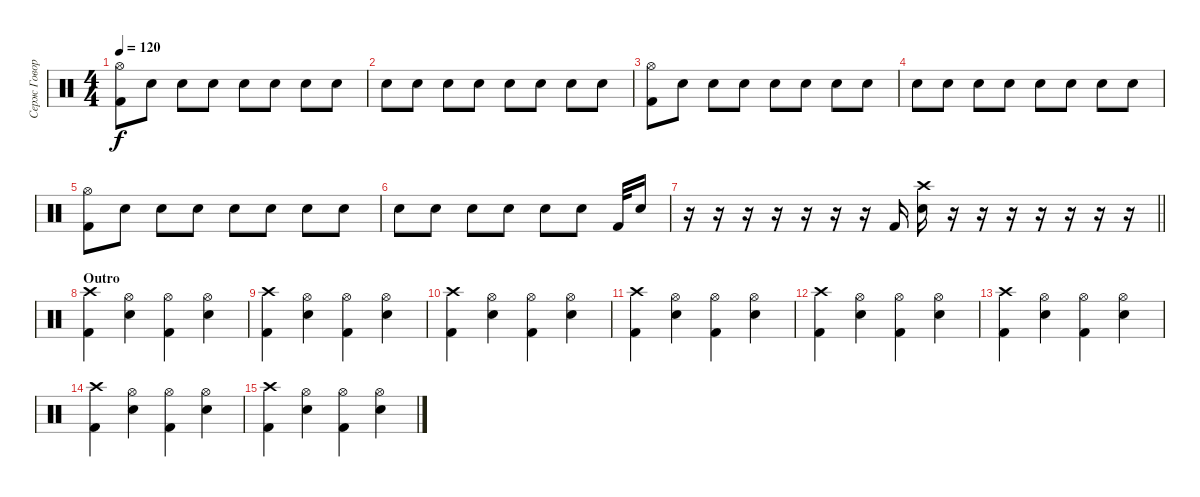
\track ("Серж Говорун" "Серж Говор") {instrument percussion}
\staff {score}
\articulation defaults
\ts (4 4)
\tempo 120
\clef neutral
\ks c
("Kick (hit) 2" "Hi-Hat (open)").8{dy f} "Electric Snare (hit)".8{volume 6} "Electric Snare (hit)".8 "Electric Snare (hit)".8 "Electric Snare (hit)".8 "Electric Snare (hit)".8 "Electric Snare (hit)".8 "Electric Snare (hit)".8{volume 13} |
"Electric Snare (hit)".8 "Electric Snare (hit)".8 "Electric Snare (hit)".8 "Electric Snare (hit)".8 "Electric Snare (hit)".8 "Electric Snare (hit)".8 "Electric Snare (hit)".8 "Electric Snare (hit)".8 |
("Kick (hit) 2" "Hi-Hat (open)").8 "Electric Snare (hit)".8{volume 6} "Electric Snare (hit)".8 "Electric Snare (hit)".8 "Electric Snare (hit)".8 "Electric Snare (hit)".8 "Electric Snare (hit)".8 "Electric Snare (hit)".8{volume 13} |
"Electric Snare (hit)".8 "Electric Snare (hit)".8 "Electric Snare (hit)".8 "Electric Snare (hit)".8 "Electric Snare (hit)".8 "Electric Snare (hit)".8 "Electric Snare (hit)".8 "Electric Snare (hit)".8 |
("Kick (hit) 2" "Hi-Hat (open)").8 "Electric Snare (hit)".8{volume 6} "Electric Snare (hit)".8 "Electric Snare (hit)".8 "Electric Snare (hit)".8 "Electric Snare (hit)".8 "Electric Snare (hit)".8 "Electric Snare (hit)".8{volume 13} |
"Electric Snare (hit)".8 "Electric Snare (hit)".8 "Electric Snare (hit)".8 "Electric Snare (hit)".8 "Electric Snare (hit)".8 "Electric Snare (hit)".8 "Kick (hit) 2".32 "Electric Snare (hit)".16 |
\barLineRight lightlight
r.16 r.16 r.16 r.16 r.16 r.16 r.16 "Kick (hit) 2".16 ("Electric Snare (hit)" "Crash high (hit)").16 r.16 r.16 r.16 r.16 r.16 r.16 r.16 |
\section ("" "Outro")
("Crash high (hit)" "Kick (hit) 2").4 ("Hi-Hat (open)" "Electric Snare (hit)").4 ("Hi-Hat (open)" "Kick (hit) 2").4 ("Hi-Hat (open)" "Electric Snare (hit)").4 |
("Crash high (hit)" "Kick (hit) 2").4 ("Hi-Hat (open)" "Electric Snare (hit)").4 ("Hi-Hat (open)" "Kick (hit) 2").4 ("Hi-Hat (open)" "Electric Snare (hit)").4 |
("Crash high (hit)" "Kick (hit) 2").4 ("Hi-Hat (open)" "Electric Snare (hit)").4 ("Hi-Hat (open)" "Kick (hit) 2").4 ("Hi-Hat (open)" "Electric Snare (hit)").4 |
("Crash high (hit)" "Kick (hit) 2").4 ("Hi-Hat (open)" "Electric Snare (hit)").4 ("Hi-Hat (open)" "Kick (hit) 2").4 ("Hi-Hat (open)" "Electric Snare (hit)").4 |
("Crash high (hit)" "Kick (hit) 2").4 ("Hi-Hat (open)" "Electric Snare (hit)").4 ("Hi-Hat (open)" "Kick (hit) 2").4 ("Hi-Hat (open)" "Electric Snare (hit)").4 |
("Crash high (hit)" "Kick (hit) 2").4 ("Hi-Hat (open)" "Electric Snare (hit)").4 ("Hi-Hat (open)" "Kick (hit) 2").4 ("Hi-Hat (open)" "Electric Snare (hit)").4 |
("Crash high (hit)" "Kick (hit) 2").4 ("Hi-Hat (open)" "Electric Snare (hit)").4 ("Hi-Hat (open)" "Kick (hit) 2").4 ("Hi-Hat (open)" "Electric Snare (hit)").4 |
("Crash high (hit)" "Kick (hit) 2").4 ("Hi-Hat (open)" "Electric Snare (hit)").4 ("Hi-Hat (open)" "Kick (hit) 2").4 ("Hi-Hat (open)" "Electric Snare (hit)").4
